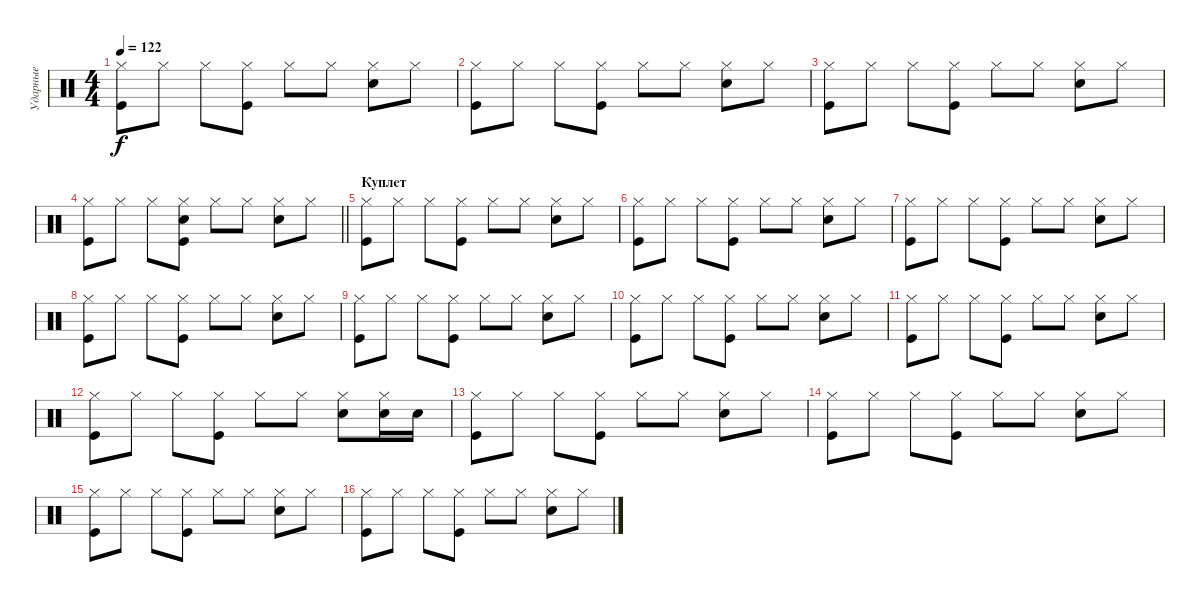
\track ("Ударные" "Ударные") {instrument percussion}
\staff {score}
\articulation defaults
\ts (4 4)
\tempo 122
\clef neutral
\ks c
("Hi-Hat (closed)" "Kick (hit)").8{dy f} "Hi-Hat (closed)".8 "Hi-Hat (closed)".8 ("Kick (hit)" "Hi-Hat (closed)").8 "Hi-Hat (closed)".8 "Hi-Hat (closed)".8 ("Electric Snare (hit)" "Hi-Hat (closed)").8 "Hi-Hat (closed)".8 |
("Hi-Hat (closed)" "Kick (hit)").8 "Hi-Hat (closed)".8 "Hi-Hat (closed)".8 ("Kick (hit)" "Hi-Hat (closed)").8 "Hi-Hat (closed)".8 "Hi-Hat (closed)".8 ("Electric Snare (hit)" "Hi-Hat (closed)").8 "Hi-Hat (closed)".8 |
("Hi-Hat (closed)" "Kick (hit)").8 "Hi-Hat (closed)".8 "Hi-Hat (closed)".8 ("Kick (hit)" "Hi-Hat (closed)").8 "Hi-Hat (closed)".8 "Hi-Hat (closed)".8 ("Electric Snare (hit)" "Hi-Hat (closed)").8 "Hi-Hat (closed)".8 |
\barLineRight lightlight
("Hi-Hat (closed)" "Kick (hit)").8 "Hi-Hat (closed)".8 "Hi-Hat (closed)".8 ("Kick (hit)" "Electric Snare (hit)" "Hi-Hat (closed)").8 "Hi-Hat (closed)".8 "Hi-Hat (closed)".8 ("Electric Snare (hit)" "Hi-Hat (closed)").8 "Hi-Hat (closed)".8 |
\section ("" "Куплет")
("Hi-Hat (closed)" "Kick (hit)").8 "Hi-Hat (closed)".8 "Hi-Hat (closed)".8 ("Kick (hit)" "Hi-Hat (closed)").8 "Hi-Hat (closed)".8 "Hi-Hat (closed)".8 ("Electric Snare (hit)" "Hi-Hat (closed)").8 "Hi-Hat (closed)".8 |
("Hi-Hat (closed)" "Kick (hit)").8 "Hi-Hat (closed)".8 "Hi-Hat (closed)".8 ("Kick (hit)" "Hi-Hat (closed)").8 "Hi-Hat (closed)".8 "Hi-Hat (closed)".8 ("Electric Snare (hit)" "Hi-Hat (closed)").8 "Hi-Hat (closed)".8 |
("Hi-Hat (closed)" "Kick (hit)").8 "Hi-Hat (closed)".8 "Hi-Hat (closed)".8 ("Kick (hit)" "Hi-Hat (closed)").8 "Hi-Hat (closed)".8 "Hi-Hat (closed)".8 ("Electric Snare (hit)" "Hi-Hat (closed)").8 "Hi-Hat (closed)".8 |
("Hi-Hat (closed)" "Kick (hit)").8 "Hi-Hat (closed)".8 "Hi-Hat (closed)".8 ("Kick (hit)" "Hi-Hat (closed)").8 "Hi-Hat (closed)".8 "Hi-Hat (closed)".8 ("Electric Snare (hit)" "Hi-Hat (closed)").8 "Hi-Hat (closed)".8 |
("Hi-Hat (closed)" "Kick (hit)").8 "Hi-Hat (closed)".8 "Hi-Hat (closed)".8 ("Kick (hit)" "Hi-Hat (closed)").8 "Hi-Hat (closed)".8 "Hi-Hat (closed)".8 ("Electric Snare (hit)" "Hi-Hat (closed)").8 "Hi-Hat (closed)".8 |
("Hi-Hat (closed)" "Kick (hit)").8 "Hi-Hat (closed)".8 "Hi-Hat (closed)".8 ("Kick (hit)" "Hi-Hat (closed)").8 "Hi-Hat (closed)".8 "Hi-Hat (closed)".8 ("Electric Snare (hit)" "Hi-Hat (closed)").8 "Hi-Hat (closed)".8 |
("Hi-Hat (closed)" "Kick (hit)").8 "Hi-Hat (closed)".8 "Hi-Hat (closed)".8 ("Kick (hit)" "Hi-Hat (closed)").8 "Hi-Hat (closed)".8 "Hi-Hat (closed)".8 ("Electric Snare (hit)" "Hi-Hat (closed)").8 "Hi-Hat (closed)".8 |
("Hi-Hat (closed)" "Kick (hit)").8 "Hi-Hat (closed)".8 "Hi-Hat (closed)".8 ("Kick (hit)" "Hi-Hat (closed)").8 "Hi-Hat (closed)".8 "Hi-Hat (closed)".8 ("Electric Snare (hit)" "Hi-Hat (closed)").8 ("Electric Snare (hit)" "Hi-Hat (closed)").16 "Electric Snare (hit)".16 |
("Hi-Hat (closed)" "Kick (hit)").8 "Hi-Hat (closed)".8 "Hi-Hat (closed)".8 ("Kick (hit)" "Hi-Hat (closed)").8 "Hi-Hat (closed)".8 "Hi-Hat (closed)".8 ("Electric Snare (hit)" "Hi-Hat (closed)").8 "Hi-Hat (closed)".8 |
("Hi-Hat (closed)" "Kick (hit)").8 "Hi-Hat (closed)".8 "Hi-Hat (closed)".8 ("Kick (hit)" "Hi-Hat (closed)").8 "Hi-Hat (closed)".8 "Hi-Hat (closed)".8 ("Electric Snare (hit)" "Hi-Hat (closed)").8 "Hi-Hat (closed)".8 |
("Hi-Hat (closed)" "Kick (hit)").8 "Hi-Hat (closed)".8 "Hi-Hat (closed)".8 ("Kick (hit)" "Hi-Hat (closed)").8 "Hi-Hat (closed)".8 "Hi-Hat (closed)".8 ("Electric Snare (hit)" "Hi-Hat (closed)").8 "Hi-Hat (closed)".8 |
("Hi-Hat (closed)" "Kick (hit)").8 "Hi-Hat (closed)".8 "Hi-Hat (closed)".8 ("Kick (hit)" "Hi-Hat (closed)").8 "Hi-Hat (closed)".8 "Hi-Hat (closed)".8 ("Electric Snare (hit)" "Hi-Hat (closed)").8 "Hi-Hat (closed)".8
